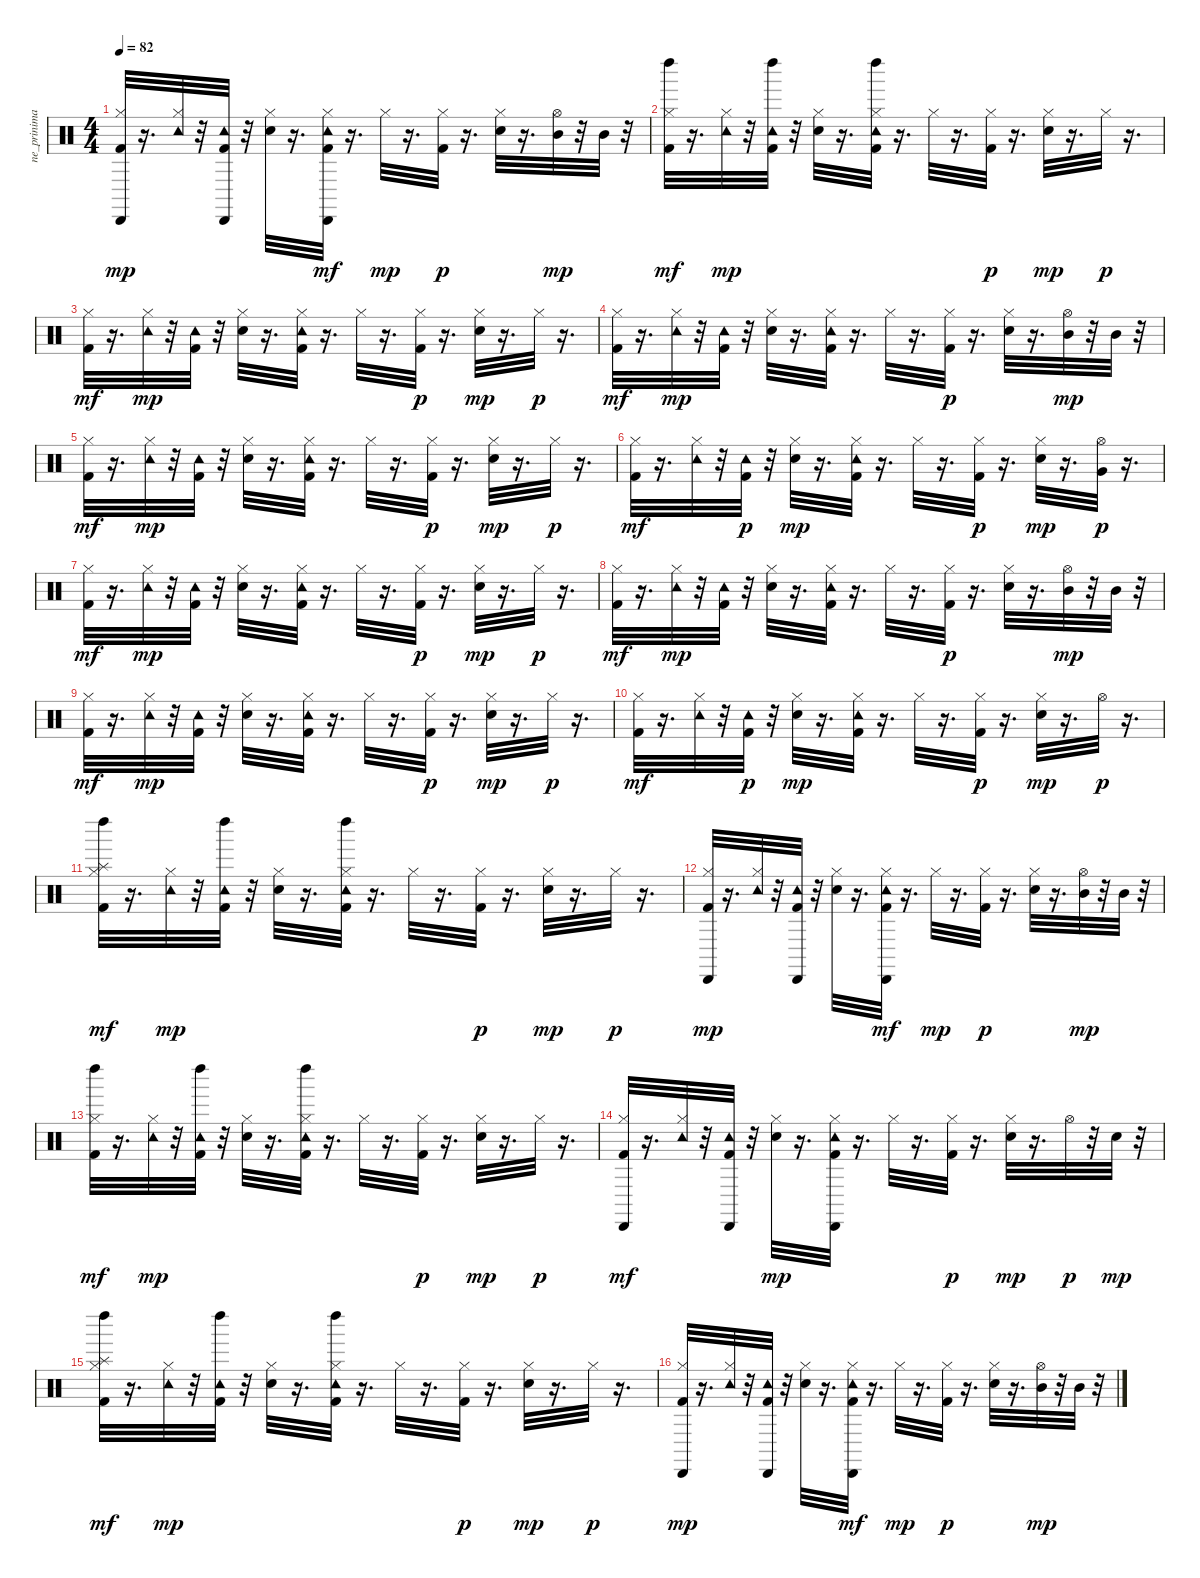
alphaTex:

\track ("ne_prinimai" "ne_prinima") {instrument percussion}
\staff {score}
\articulation defaults
\ts (4 4)
\tempo 82
\clef neutral
\ks c
("Kick (hit) 2" "Hi-Hat (closed)" "Cabasa (hit)").32{dy mp} r.16{d} ("Hi-Hat (closed)" "Tambourine (hit)").32 r.32 ("Kick (hit) 2" "Tambourine (hit)" "Cabasa (hit)").32 r.32 ("Electric Snare (hit)" "Hi-Hat (closed)").32 r.16{d} ("Kick (hit) 2" "Hi-Hat (closed)" "Tambourine (hit)" "Cabasa (hit)").32{dy mf} r.16{d} "Hi-Hat (closed)".32{dy mp} r.16{d} ("Kick (hit) 2" "Hi-Hat (closed)").32{dy p} r.16{d} ("Electric Snare (hit)" "Hi-Hat (closed)").32 r.16{d} ("Hi-Hat (open)" "Mid Tom (hit)").32{dy mp} r.32 "Mid Tom (hit)".32 r.32 |
("Kick (hit) 2" "Hi-Hat (closed)" "Left Maraca (hit)").32{dy mf} r.16{d} ("Hi-Hat (closed)" "Tambourine (hit)").32{dy mp} r.32 ("Kick (hit) 2" "Tambourine (hit)" "Left Maraca (hit)").32 r.32 ("Electric Snare (hit)" "Hi-Hat (closed)").32 r.16{d} ("Kick (hit) 2" "Hi-Hat (closed)" "Tambourine (hit)" "Left Maraca (hit)").32 r.16{d} "Hi-Hat (closed)".32 r.16{d} ("Kick (hit) 2" "Hi-Hat (closed)").32{dy p} r.16{d} ("Snare (hit) 2" "Hi-Hat (closed)").32{dy mp} r.16{d} "Hi-Hat (closed)".32{dy p} r.16{d} |
("Kick (hit) 2" "Hi-Hat (closed)").32{dy mf} r.16{d} ("Hi-Hat (closed)" "Tambourine (hit)").32{dy mp} r.32 ("Kick (hit) 2" "Tambourine (hit)").32 r.32 ("Snare (hit) 2" "Hi-Hat (closed)").32 r.16{d} ("Kick (hit) 2" "Hi-Hat (closed)" "Tambourine (hit)").32 r.16{d} "Hi-Hat (closed)".32 r.16{d} ("Kick (hit) 2" "Hi-Hat (closed)").32{dy p} r.16{d} ("Snare (hit) 2" "Hi-Hat (closed)").32{dy mp} r.16{d} "Hi-Hat (closed)".32{dy p} r.16{d} |
("Kick (hit) 2" "Hi-Hat (closed)").32{dy mf} r.16{d} ("Hi-Hat (closed)" "Tambourine (hit)").32{dy mp} r.32 ("Kick (hit) 2" "Tambourine (hit)").32 r.32 ("Snare (hit) 2" "Hi-Hat (closed)").32 r.16{d} ("Kick (hit) 2" "Hi-Hat (closed)" "Tambourine (hit)").32 r.16{d} "Hi-Hat (closed)".32 r.16{d} ("Kick (hit) 2" "Hi-Hat (closed)").32{dy p} r.16{d} ("Snare (hit) 2" "Hi-Hat (closed)").32 r.16{d} ("Hi-Hat (open)" "Mid Tom (hit)").32{dy mp} r.32 "Mid Tom (hit)".32 r.32 |
("Kick (hit) 2" "Hi-Hat (closed)").32{dy mf} r.16{d} ("Hi-Hat (closed)" "Tambourine (hit)").32{dy mp} r.32 ("Kick (hit) 2" "Tambourine (hit)").32 r.32 ("Snare (hit) 2" "Hi-Hat (closed)").32 r.16{d} ("Kick (hit) 2" "Hi-Hat (closed)" "Tambourine (hit)").32 r.16{d} "Hi-Hat (closed)".32 r.16{d} ("Kick (hit) 2" "Hi-Hat (closed)").32{dy p} r.16{d} ("Snare (hit) 2" "Hi-Hat (closed)").32{dy mp} r.16{d} "Hi-Hat (closed)".32{dy p} r.16{d} |
("Kick (hit) 2" "Hi-Hat (closed)").32{dy mf} r.16{d} ("Hi-Hat (closed)" "Tambourine (hit)").32 r.32 ("Kick (hit) 2" "Tambourine (hit)").32{dy p} r.32 ("Snare (hit) 2" "Hi-Hat (closed)").32{dy mp} r.16{d} ("Kick (hit) 2" "Hi-Hat (closed)" "Tambourine (hit)").32 r.16{d} "Hi-Hat (closed)".32 r.16{d} ("Kick (hit) 2" "Hi-Hat (closed)").32{dy p} r.16{d} ("Snare (hit) 2" "Hi-Hat (closed)").32{dy mp} r.16{d} ("Very Low Tom (hit)" "Hi-Hat (open)").32{dy p} r.16{d} |
("Kick (hit) 2" "Hi-Hat (closed)").32{dy mf} r.16{d} ("Hi-Hat (closed)" "Tambourine (hit)").32{dy mp} r.32 ("Kick (hit) 2" "Tambourine (hit)").32 r.32 ("Snare (hit) 2" "Hi-Hat (closed)").32 r.16{d} ("Kick (hit) 2" "Hi-Hat (closed)" "Tambourine (hit)").32 r.16{d} "Hi-Hat (closed)".32 r.16{d} ("Kick (hit) 2" "Hi-Hat (closed)").32{dy p} r.16{d} ("Snare (hit) 2" "Hi-Hat (closed)").32{dy mp} r.16{d} "Hi-Hat (closed)".32{dy p} r.16{d} |
("Kick (hit) 2" "Hi-Hat (closed)").32{dy mf} r.16{d} ("Hi-Hat (closed)" "Tambourine (hit)").32{dy mp} r.32 ("Kick (hit) 2" "Tambourine (hit)").32 r.32 ("Snare (hit) 2" "Hi-Hat (closed)").32 r.16{d} ("Kick (hit) 2" "Hi-Hat (closed)" "Tambourine (hit)").32 r.16{d} "Hi-Hat (closed)".32 r.16{d} ("Kick (hit) 2" "Hi-Hat (closed)").32{dy p} r.16{d} ("Snare (hit) 2" "Hi-Hat (closed)").32 r.16{d} ("Hi-Hat (open)" "Mid Tom (hit)").32{dy mp} r.32 "Mid Tom (hit)".32 r.32 |
("Kick (hit) 2" "Hi-Hat (closed)").32{dy mf} r.16{d} ("Hi-Hat (closed)" "Tambourine (hit)").32{dy mp} r.32 ("Kick (hit) 2" "Tambourine (hit)").32 r.32 ("Snare (hit) 2" "Hi-Hat (closed)").32 r.16{d} ("Kick (hit) 2" "Hi-Hat (closed)" "Tambourine (hit)").32 r.16{d} "Hi-Hat (closed)".32 r.16{d} ("Kick (hit) 2" "Hi-Hat (closed)").32{dy p} r.16{d} ("Snare (hit) 2" "Hi-Hat (closed)").32{dy mp} r.16{d} "Hi-Hat (closed)".32{dy p} r.16{d} |
("Kick (hit) 2" "Hi-Hat (closed)").32{dy mf} r.16{d} ("Hi-Hat (closed)" "Tambourine (hit)").32 r.32 ("Kick (hit) 2" "Tambourine (hit)").32{dy p} r.32 ("Snare (hit) 2" "Hi-Hat (closed)").32{dy mp} r.16{d} ("Kick (hit) 2" "Hi-Hat (closed)" "Tambourine (hit)").32 r.16{d} "Hi-Hat (closed)".32 r.16{d} ("Kick (hit) 2" "Hi-Hat (closed)").32{dy p} r.16{d} ("Electric Snare (hit)" "Hi-Hat (closed)").32{dy mp} r.16{d} "Hi-Hat (open)".32{dy p} r.16{d} |
("Kick (hit) 2" "Hi-Hat (closed)" "Splash (hit)" "Left Maraca (hit)").32{dy mf} r.16{d} ("Hi-Hat (closed)" "Tambourine (hit)").32{dy mp} r.32 ("Kick (hit) 2" "Tambourine (hit)" "Left Maraca (hit)").32 r.32 ("Electric Snare (hit)" "Hi-Hat (closed)").32 r.16{d} ("Kick (hit) 2" "Hi-Hat (closed)" "Tambourine (hit)" "Left Maraca (hit)").32 r.16{d} "Hi-Hat (closed)".32 r.16{d} ("Kick (hit) 2" "Hi-Hat (closed)").32{dy p} r.16{d} ("Electric Snare (hit)" "Hi-Hat (closed)").32{dy mp} r.16{d} "Hi-Hat (closed)".32{dy p} r.16{d} |
("Kick (hit) 2" "Hi-Hat (closed)" "Cabasa (hit)").32{dy mp} r.16{d} ("Hi-Hat (closed)" "Tambourine (hit)").32 r.32 ("Kick (hit) 2" "Tambourine (hit)" "Cabasa (hit)").32 r.32 ("Electric Snare (hit)" "Hi-Hat (closed)").32 r.16{d} ("Kick (hit) 2" "Hi-Hat (closed)" "Tambourine (hit)" "Cabasa (hit)").32{dy mf} r.16{d} "Hi-Hat (closed)".32{dy mp} r.16{d} ("Kick (hit) 2" "Hi-Hat (closed)").32{dy p} r.16{d} ("Electric Snare (hit)" "Hi-Hat (closed)").32 r.16{d} ("Hi-Hat (open)" "Mid Tom (hit)").32{dy mp} r.32 "Mid Tom (hit)".32 r.32 |
("Kick (hit) 2" "Hi-Hat (closed)" "Left Maraca (hit)").32{dy mf} r.16{d} ("Hi-Hat (closed)" "Tambourine (hit)").32{dy mp} r.32 ("Kick (hit) 2" "Tambourine (hit)" "Left Maraca (hit)").32 r.32 ("Electric Snare (hit)" "Hi-Hat (closed)").32 r.16{d} ("Kick (hit) 2" "Hi-Hat (closed)" "Tambourine (hit)" "Left Maraca (hit)").32 r.16{d} "Hi-Hat (closed)".32 r.16{d} ("Kick (hit) 2" "Hi-Hat (closed)").32{dy p} r.16{d} ("Electric Snare (hit)" "Hi-Hat (closed)").32{dy mp} r.16{d} "Hi-Hat (closed)".32{dy p} r.16{d} |
("Kick (hit) 2" "Hi-Hat (closed)" "Cabasa (hit)").32{dy mf} r.16{d} ("Hi-Hat (closed)" "Tambourine (hit)").32 r.32 ("Kick (hit) 2" "Tambourine (hit)" "Cabasa (hit)").32 r.32 ("Electric Snare (hit)" "Hi-Hat (closed)").32{dy mp} r.16{d} ("Kick (hit) 2" "Hi-Hat (closed)" "Tambourine (hit)" "Cabasa (hit)").32 r.16{d} "Hi-Hat (closed)".32 r.16{d} ("Kick (hit) 2" "Hi-Hat (closed)").32{dy p} r.16{d} ("Electric Snare (hit)" "Hi-Hat (closed)").32{dy mp} r.16{d} "Hi-Hat (open)".32{dy p} r.32 "Electric Snare (hit)".32{dy mp} r.32 |
("Kick (hit) 2" "Hi-Hat (closed)" "Splash (hit)" "Left Maraca (hit)").32{dy mf} r.16{d} ("Hi-Hat (closed)" "Tambourine (hit)").32{dy mp} r.32 ("Kick (hit) 2" "Tambourine (hit)" "Left Maraca (hit)").32 r.32 ("Electric Snare (hit)" "Hi-Hat (closed)").32 r.16{d} ("Kick (hit) 2" "Hi-Hat (closed)" "Tambourine (hit)" "Left Maraca (hit)").32 r.16{d} "Hi-Hat (closed)".32 r.16{d} ("Kick (hit) 2" "Hi-Hat (closed)").32{dy p} r.16{d} ("Electric Snare (hit)" "Hi-Hat (closed)").32{dy mp} r.16{d} "Hi-Hat (closed)".32{dy p} r.16{d} |
("Kick (hit) 2" "Hi-Hat (closed)" "Cabasa (hit)").32{dy mp} r.16{d} ("Hi-Hat (closed)" "Tambourine (hit)").32 r.32 ("Kick (hit) 2" "Tambourine (hit)" "Cabasa (hit)").32 r.32 ("Electric Snare (hit)" "Hi-Hat (closed)").32 r.16{d} ("Kick (hit) 2" "Hi-Hat (closed)" "Tambourine (hit)" "Cabasa (hit)").32{dy mf} r.16{d} "Hi-Hat (closed)".32{dy mp} r.16{d} ("Kick (hit) 2" "Hi-Hat (closed)").32{dy p} r.16{d} ("Electric Snare (hit)" "Hi-Hat (closed)").32 r.16{d} ("Hi-Hat (open)" "Mid Tom (hit)").32{dy mp} r.32 "Mid Tom (hit)".32 r.32
